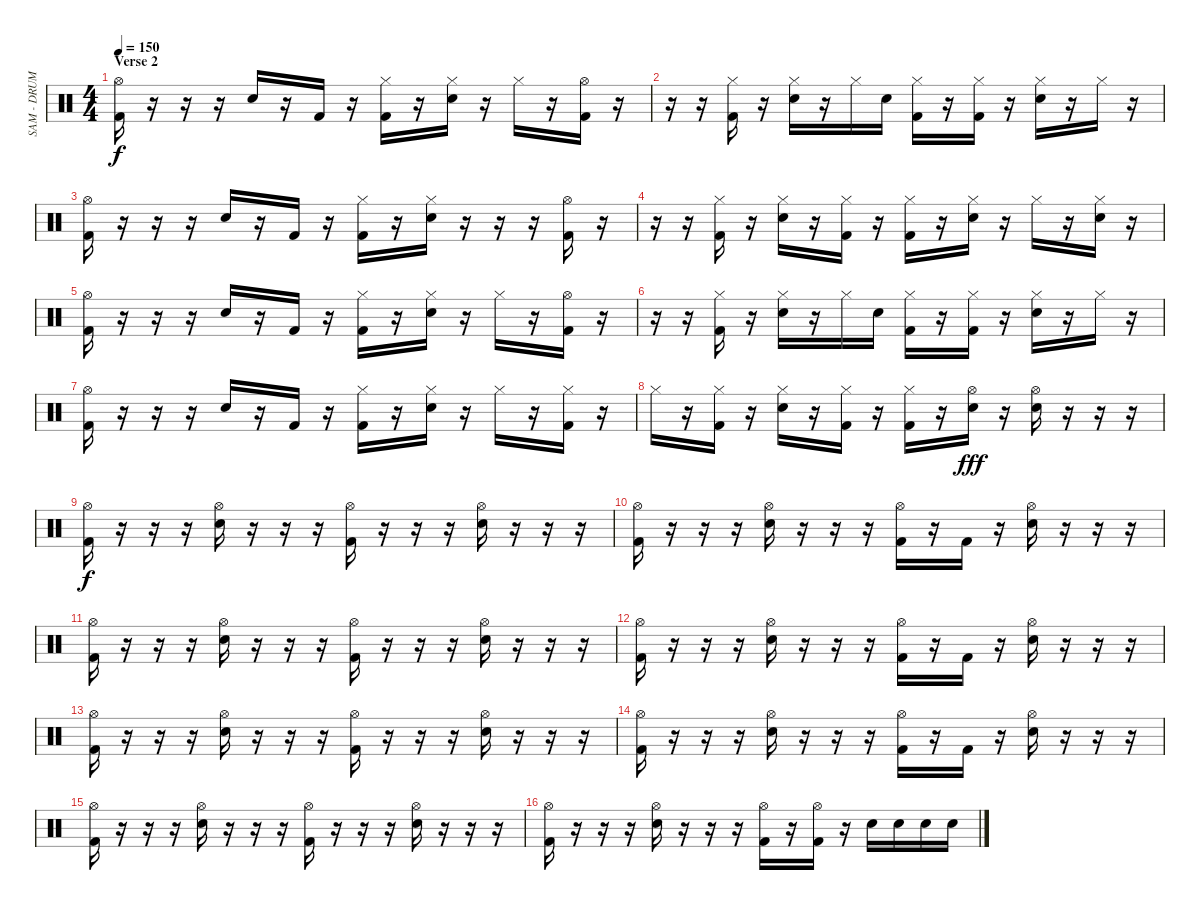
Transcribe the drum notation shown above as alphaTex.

\track ("SAM - DRUMS" "SAM - DRUM") {instrument percussion}
\staff {score}
\articulation defaults
\ts (4 4)
\section ("" "Verse 2")
\tempo 150
\clef neutral
\ks c
("Hi-Hat (open)" "Kick (hit) 2").16{dy f} r.16 r.16 r.16 "Snare (hit) 2".16 r.16 "Kick (hit) 2".16 r.16 ("Hi-Hat (closed)" "Kick (hit) 2").16 r.16 ("Hi-Hat (closed)" "Snare (hit) 2").16 r.16 "Hi-Hat (closed)".16 r.16 ("Hi-Hat (open)" "Kick (hit) 2").16 r.16 |
r.16 r.16 ("Hi-Hat (closed)" "Kick (hit) 2").16 r.16 ("Hi-Hat (closed)" "Snare (hit) 2").16 r.16 "Hi-Hat (closed)".16 "Snare (hit) 2".16 ("Hi-Hat (closed)" "Kick (hit) 2").16 r.16 ("Hi-Hat (closed)" "Kick (hit) 2").16 r.16 ("Hi-Hat (closed)" "Snare (hit) 2").16 r.16 "Hi-Hat (closed)".16 r.16 |
("Hi-Hat (open)" "Kick (hit) 2").16 r.16 r.16 r.16 "Snare (hit) 2".16 r.16 "Kick (hit) 2".16 r.16 ("Hi-Hat (closed)" "Kick (hit) 2").16 r.16 ("Hi-Hat (closed)" "Snare (hit) 2").16 r.16 r.16 r.16 ("Hi-Hat (open)" "Kick (hit) 2").16 r.16 |
r.16 r.16 ("Hi-Hat (closed)" "Kick (hit) 2").16 r.16 ("Hi-Hat (closed)" "Snare (hit) 2").16 r.16 ("Hi-Hat (closed)" "Kick (hit) 2").16 r.16 ("Hi-Hat (closed)" "Kick (hit) 2").16 r.16 ("Hi-Hat (closed)" "Snare (hit) 2").16 r.16 "Hi-Hat (closed)".16 r.16 ("Hi-Hat (closed)" "Snare (hit) 2").16 r.16 |
("Hi-Hat (open)" "Kick (hit) 2").16 r.16 r.16 r.16 "Snare (hit) 2".16 r.16 "Kick (hit) 2".16 r.16 ("Hi-Hat (closed)" "Kick (hit) 2").16 r.16 ("Hi-Hat (closed)" "Snare (hit) 2").16 r.16 "Hi-Hat (closed)".16 r.16 ("Hi-Hat (open)" "Kick (hit) 2").16 r.16 |
r.16 r.16 ("Hi-Hat (closed)" "Kick (hit) 2").16 r.16 ("Hi-Hat (closed)" "Snare (hit) 2").16 r.16 "Hi-Hat (closed)".16 "Snare (hit) 2".16 ("Hi-Hat (closed)" "Kick (hit) 2").16 r.16 ("Hi-Hat (closed)" "Kick (hit) 2").16 r.16 ("Hi-Hat (closed)" "Snare (hit) 2").16 r.16 "Hi-Hat (closed)".16 r.16 |
("Hi-Hat (open)" "Kick (hit) 2").16 r.16 r.16 r.16 "Snare (hit) 2".16 r.16 "Kick (hit) 2".16 r.16 ("Hi-Hat (closed)" "Kick (hit) 2").16 r.16 ("Hi-Hat (closed)" "Snare (hit) 2").16 r.16 "Hi-Hat (closed)".16 r.16 ("Hi-Hat (closed)" "Kick (hit) 2").16 r.16 |
"Hi-Hat (closed)".16 r.16 ("Hi-Hat (closed)" "Kick (hit) 2").16 r.16 ("Hi-Hat (closed)" "Snare (hit) 2").16 r.16 ("Hi-Hat (closed)" "Kick (hit) 2").16 r.16 ("Hi-Hat (closed)" "Kick (hit) 2").16 r.16 ("Hi-Hat (open)" "Snare (hit) 2").16{dy fff} r.16 ("Hi-Hat (open)" "Snare (hit) 2").16 r.16 r.16 r.16 |
("Hi-Hat (open)" "Kick (hit) 2").16{dy f} r.16 r.16 r.16 ("Hi-Hat (open)" "Snare (hit) 2").16 r.16 r.16 r.16 ("Hi-Hat (open)" "Kick (hit) 2").16 r.16 r.16 r.16 ("Hi-Hat (open)" "Snare (hit) 2").16 r.16 r.16 r.16 |
("Hi-Hat (open)" "Kick (hit) 2").16 r.16 r.16 r.16 ("Hi-Hat (open)" "Snare (hit) 2").16 r.16 r.16 r.16 ("Hi-Hat (open)" "Kick (hit) 2").16 r.16 "Kick (hit) 2".16 r.16 ("Hi-Hat (open)" "Snare (hit) 2").16 r.16 r.16 r.16 |
("Hi-Hat (open)" "Kick (hit) 2").16 r.16 r.16 r.16 ("Hi-Hat (open)" "Snare (hit) 2").16 r.16 r.16 r.16 ("Hi-Hat (open)" "Kick (hit) 2").16 r.16 r.16 r.16 ("Hi-Hat (open)" "Snare (hit) 2").16 r.16 r.16 r.16 |
("Hi-Hat (open)" "Kick (hit) 2").16 r.16 r.16 r.16 ("Hi-Hat (open)" "Snare (hit) 2").16 r.16 r.16 r.16 ("Hi-Hat (open)" "Kick (hit) 2").16 r.16 "Kick (hit) 2".16 r.16 ("Hi-Hat (open)" "Snare (hit) 2").16 r.16 r.16 r.16 |
("Hi-Hat (open)" "Kick (hit) 2").16 r.16 r.16 r.16 ("Hi-Hat (open)" "Snare (hit) 2").16 r.16 r.16 r.16 ("Hi-Hat (open)" "Kick (hit) 2").16 r.16 r.16 r.16 ("Hi-Hat (open)" "Snare (hit) 2").16 r.16 r.16 r.16 |
("Hi-Hat (open)" "Kick (hit) 2").16 r.16 r.16 r.16 ("Hi-Hat (open)" "Snare (hit) 2").16 r.16 r.16 r.16 ("Hi-Hat (open)" "Kick (hit) 2").16 r.16 "Kick (hit) 2".16 r.16 ("Hi-Hat (open)" "Snare (hit) 2").16 r.16 r.16 r.16 |
("Hi-Hat (open)" "Kick (hit) 2").16 r.16 r.16 r.16 ("Hi-Hat (open)" "Snare (hit) 2").16 r.16 r.16 r.16 ("Hi-Hat (open)" "Kick (hit) 2").16 r.16 r.16 r.16 ("Hi-Hat (open)" "Snare (hit) 2").16 r.16 r.16 r.16 |
("Hi-Hat (open)" "Kick (hit) 2").16 r.16 r.16 r.16 ("Hi-Hat (open)" "Snare (hit) 2").16 r.16 r.16 r.16 ("Hi-Hat (open)" "Kick (hit) 2").16 r.16 ("Hi-Hat (open)" "Kick (hit) 2").16 r.16 "Snare (hit) 2".16 "Snare (hit) 2".16 "Snare (hit) 2".16 "Snare (hit) 2".16
